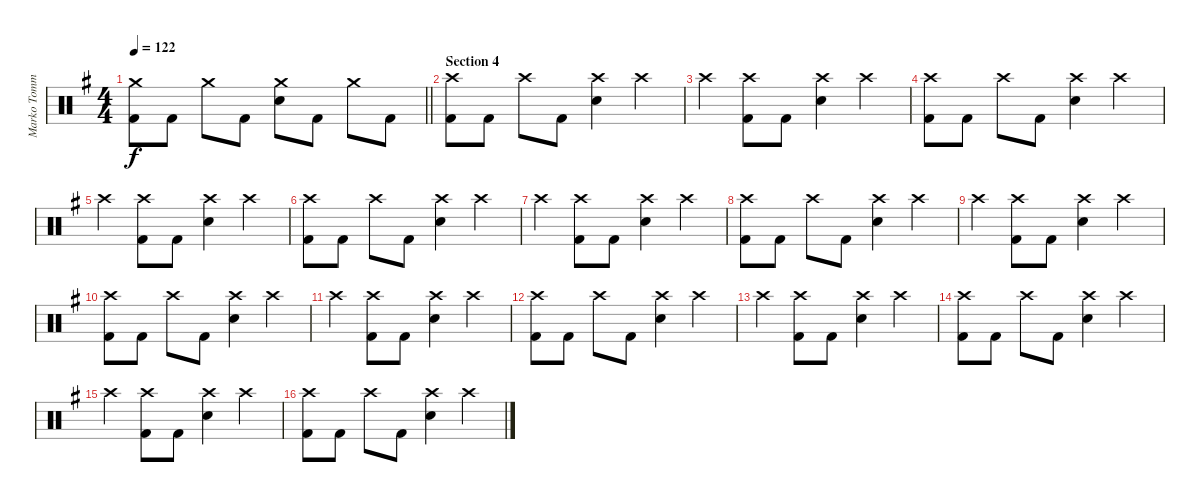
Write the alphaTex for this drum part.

\track ("Marko Tommila (drums)" "Marko Tomm") {instrument percussion}
\staff {score}
\articulation defaults
\ts (4 4)
\tempo 122
\clef neutral
\barLineRight lightlight
\ks eminor
("Crash medium (hit)" "Kick (hit) 2").8{dy f} "Kick (hit) 2".8 "Crash medium (hit)".8 "Kick (hit) 2".8 ("Crash medium (hit)" "Snare (hit) 2").8 "Kick (hit) 2".8 "Crash medium (hit)".8 "Kick (hit) 2".8 |
\section ("" "Section 4")
("Crash high (hit)" "Kick (hit) 2").8 "Kick (hit) 2".8 "Crash high (hit)".8 "Kick (hit) 2".8 ("Crash high (hit)" "Snare (hit) 2").4 "Crash high (hit)".4 |
"Crash high (hit)".4 ("Crash high (hit)" "Kick (hit) 2").8 "Kick (hit) 2".8 ("Crash high (hit)" "Snare (hit) 2").4 "Crash high (hit)".4 |
("Crash high (hit)" "Kick (hit) 2").8 "Kick (hit) 2".8 "Crash high (hit)".8 "Kick (hit) 2".8 ("Crash high (hit)" "Snare (hit) 2").4 "Crash high (hit)".4 |
"Crash high (hit)".4 ("Crash high (hit)" "Kick (hit) 2").8 "Kick (hit) 2".8 ("Crash high (hit)" "Snare (hit) 2").4 "Crash high (hit)".4 |
("Crash high (hit)" "Kick (hit) 2").8 "Kick (hit) 2".8 "Crash high (hit)".8 "Kick (hit) 2".8 ("Crash high (hit)" "Snare (hit) 2").4 "Crash high (hit)".4 |
"Crash high (hit)".4 ("Crash high (hit)" "Kick (hit) 2").8 "Kick (hit) 2".8 ("Crash high (hit)" "Snare (hit) 2").4 "Crash high (hit)".4 |
("Crash high (hit)" "Kick (hit) 2").8 "Kick (hit) 2".8 "Crash high (hit)".8 "Kick (hit) 2".8 ("Crash high (hit)" "Snare (hit) 2").4 "Crash high (hit)".4 |
"Crash high (hit)".4 ("Crash high (hit)" "Kick (hit) 2").8 "Kick (hit) 2".8 ("Crash high (hit)" "Snare (hit) 2").4 "Crash high (hit)".4 |
("Crash high (hit)" "Kick (hit) 2").8 "Kick (hit) 2".8 "Crash high (hit)".8 "Kick (hit) 2".8 ("Crash high (hit)" "Snare (hit) 2").4 "Crash high (hit)".4 |
"Crash high (hit)".4 ("Crash high (hit)" "Kick (hit) 2").8 "Kick (hit) 2".8 ("Crash high (hit)" "Snare (hit) 2").4 "Crash high (hit)".4 |
("Crash high (hit)" "Kick (hit) 2").8 "Kick (hit) 2".8 "Crash high (hit)".8 "Kick (hit) 2".8 ("Crash high (hit)" "Snare (hit) 2").4 "Crash high (hit)".4 |
"Crash high (hit)".4 ("Crash high (hit)" "Kick (hit) 2").8 "Kick (hit) 2".8 ("Crash high (hit)" "Snare (hit) 2").4 "Crash high (hit)".4 |
("Crash high (hit)" "Kick (hit) 2").8 "Kick (hit) 2".8 "Crash high (hit)".8 "Kick (hit) 2".8 ("Crash high (hit)" "Snare (hit) 2").4 "Crash high (hit)".4 |
"Crash high (hit)".4 ("Crash high (hit)" "Kick (hit) 2").8 "Kick (hit) 2".8 ("Crash high (hit)" "Snare (hit) 2").4 "Crash high (hit)".4 |
("Crash high (hit)" "Kick (hit) 2").8 "Kick (hit) 2".8 "Crash high (hit)".8 "Kick (hit) 2".8 ("Crash high (hit)" "Snare (hit) 2").4 "Crash high (hit)".4
